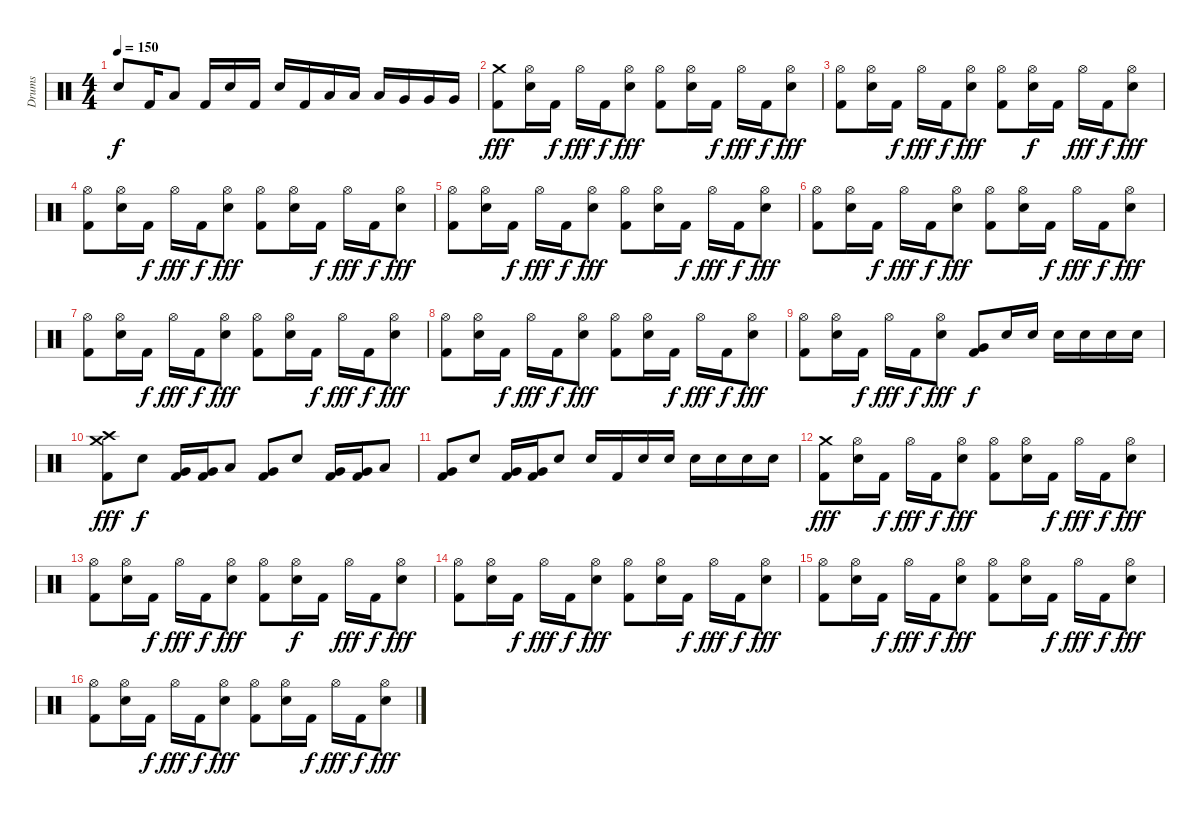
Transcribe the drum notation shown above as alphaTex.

\track ("Drums" "Drums") {instrument percussion}
\staff {score}
\articulation defaults
\ts (4 4)
\tempo 150
\clef neutral
\ks c "Electric Snare (hit)".8{dy f} "Kick (hit) 2".16 "Low Tom (hit)".8 "Kick (hit) 2".16 "Electric Snare (hit)".16 "Kick (hit) 2".16 "Electric Snare (hit)".16 "Kick (hit) 2".16 "Low Tom (hit)".16 "Low Tom (hit)".16 "Low Tom (hit)".16 "Very Low Tom (hit)".16 "Very Low Tom (hit)".16 "Very Low Tom (hit)".16
|
("Crash medium (hit)" "Kick (hit) 2").8{dy fff} ("Hi-Hat (open)" "Electric Snare (hit)").16 "Kick (hit) 2".16{dy f} "Hi-Hat (open)".16{dy fff} "Kick (hit) 2".16{dy f} ("Hi-Hat (open)" "Electric Snare (hit)").8{dy fff} ("Hi-Hat (open)" "Kick (hit) 2").8 ("Hi-Hat (open)" "Electric Snare (hit)").16 "Kick (hit) 2".16{dy f} "Hi-Hat (open)".16{dy fff} "Kick (hit) 2".16{dy f} ("Hi-Hat (open)" "Electric Snare (hit)").8{dy fff} |
("Hi-Hat (open)" "Kick (hit) 2").8 ("Hi-Hat (open)" "Electric Snare (hit)").16 "Kick (hit) 2".16{dy f} "Hi-Hat (open)".16{dy fff} "Kick (hit) 2".16{dy f} ("Hi-Hat (open)" "Electric Snare (hit)").8{dy fff} ("Hi-Hat (open)" "Kick (hit) 2").8 ("Hi-Hat (open)" "Electric Snare (hit)").16{dy f} "Kick (hit) 2".16 "Hi-Hat (open)".16{dy fff} "Kick (hit) 2".16{dy f} ("Hi-Hat (open)" "Electric Snare (hit)").8{dy fff} |
("Hi-Hat (open)" "Kick (hit) 2").8 ("Hi-Hat (open)" "Electric Snare (hit)").16 "Kick (hit) 2".16{dy f} "Hi-Hat (open)".16{dy fff} "Kick (hit) 2".16{dy f} ("Hi-Hat (open)" "Electric Snare (hit)").8{dy fff} ("Hi-Hat (open)" "Kick (hit) 2").8 ("Hi-Hat (open)" "Electric Snare (hit)").16 "Kick (hit) 2".16{dy f} "Hi-Hat (open)".16{dy fff} "Kick (hit) 2".16{dy f} ("Hi-Hat (open)" "Electric Snare (hit)").8{dy fff} |
("Hi-Hat (open)" "Kick (hit) 2").8 ("Hi-Hat (open)" "Electric Snare (hit)").16 "Kick (hit) 2".16{dy f} "Hi-Hat (open)".16{dy fff} "Kick (hit) 2".16{dy f} ("Hi-Hat (open)" "Electric Snare (hit)").8{dy fff} ("Hi-Hat (open)" "Kick (hit) 2").8 ("Hi-Hat (open)" "Electric Snare (hit)").16 "Kick (hit) 2".16{dy f} "Hi-Hat (open)".16{dy fff} "Kick (hit) 2".16{dy f} ("Hi-Hat (open)" "Electric Snare (hit)").8{dy fff} |
("Hi-Hat (open)" "Kick (hit) 2").8 ("Hi-Hat (open)" "Electric Snare (hit)").16 "Kick (hit) 2".16{dy f} "Hi-Hat (open)".16{dy fff} "Kick (hit) 2".16{dy f} ("Hi-Hat (open)" "Electric Snare (hit)").8{dy fff} ("Hi-Hat (open)" "Kick (hit) 2").8 ("Hi-Hat (open)" "Electric Snare (hit)").16 "Kick (hit) 2".16{dy f} "Hi-Hat (open)".16{dy fff} "Kick (hit) 2".16{dy f} ("Hi-Hat (open)" "Electric Snare (hit)").8{dy fff} |
("Hi-Hat (open)" "Kick (hit) 2").8 ("Hi-Hat (open)" "Electric Snare (hit)").16 "Kick (hit) 2".16{dy f} "Hi-Hat (open)".16{dy fff} "Kick (hit) 2".16{dy f} ("Hi-Hat (open)" "Electric Snare (hit)").8{dy fff} ("Hi-Hat (open)" "Kick (hit) 2").8 ("Hi-Hat (open)" "Electric Snare (hit)").16 "Kick (hit) 2".16{dy f} "Hi-Hat (open)".16{dy fff} "Kick (hit) 2".16{dy f} ("Hi-Hat (open)" "Electric Snare (hit)").8{dy fff} |
("Hi-Hat (open)" "Kick (hit) 2").8 ("Hi-Hat (open)" "Electric Snare (hit)").16 "Kick (hit) 2".16{dy f} "Hi-Hat (open)".16{dy fff} "Kick (hit) 2".16{dy f} ("Hi-Hat (open)" "Electric Snare (hit)").8{dy fff} ("Hi-Hat (open)" "Kick (hit) 2").8 ("Hi-Hat (open)" "Electric Snare (hit)").16 "Kick (hit) 2".16{dy f} "Hi-Hat (open)".16{dy fff} "Kick (hit) 2".16{dy f} ("Hi-Hat (open)" "Electric Snare (hit)").8{dy fff} |
("Hi-Hat (open)" "Kick (hit) 2").8 ("Hi-Hat (open)" "Electric Snare (hit)").16 "Kick (hit) 2".16{dy f} "Hi-Hat (open)".16{dy fff} "Kick (hit) 2".16{dy f} ("Hi-Hat (open)" "Electric Snare (hit)").8{dy fff} ("Very Low Tom (hit)" "Kick (hit) 2").8{dy f} "Electric Snare (hit)".16 "Electric Snare (hit)".16 "Electric Snare (hit)".16 "Electric Snare (hit)".16 "Electric Snare (hit)".16 "Electric Snare (hit)".16 |
("Crash high (hit)" "Crash medium (hit)" "Kick (hit) 2").8{dy fff} "Electric Snare (hit)".8{dy f} ("Very Low Tom (hit)" "Kick (hit) 2").16 ("Very Low Tom (hit)" "Kick (hit) 2").16 "Low Tom (hit)".8 ("Very Low Tom (hit)" "Kick (hit) 2").8 "Electric Snare (hit)".8 ("Very Low Tom (hit)" "Kick (hit) 2").16 ("Very Low Tom (hit)" "Kick (hit) 2").16 "Low Tom (hit)".8 |
("Very Low Tom (hit)" "Kick (hit) 2").8 "Electric Snare (hit)".8 ("Very Low Tom (hit)" "Kick (hit) 2").16 ("Very Low Tom (hit)" "Kick (hit) 2").16 "Electric Snare (hit)".8 "Electric Snare (hit)".16 "Kick (hit) 2".16 "Electric Snare (hit)".16 "Electric Snare (hit)".16 "Electric Snare (hit)".16 "Electric Snare (hit)".16 "Electric Snare (hit)".16 "Electric Snare (hit)".16 |
("Crash medium (hit)" "Kick (hit) 2").8{dy fff} ("Hi-Hat (open)" "Electric Snare (hit)").16 "Kick (hit) 2".16{dy f} "Hi-Hat (open)".16{dy fff} "Kick (hit) 2".16{dy f} ("Hi-Hat (open)" "Electric Snare (hit)").8{dy fff} ("Hi-Hat (open)" "Kick (hit) 2").8 ("Hi-Hat (open)" "Electric Snare (hit)").16 "Kick (hit) 2".16{dy f} "Hi-Hat (open)".16{dy fff} "Kick (hit) 2".16{dy f} ("Hi-Hat (open)" "Electric Snare (hit)").8{dy fff} |
("Hi-Hat (open)" "Kick (hit) 2").8 ("Hi-Hat (open)" "Electric Snare (hit)").16 "Kick (hit) 2".16{dy f} "Hi-Hat (open)".16{dy fff} "Kick (hit) 2".16{dy f} ("Hi-Hat (open)" "Electric Snare (hit)").8{dy fff} ("Hi-Hat (open)" "Kick (hit) 2").8 ("Hi-Hat (open)" "Electric Snare (hit)").16{dy f} "Kick (hit) 2".16 "Hi-Hat (open)".16{dy fff} "Kick (hit) 2".16{dy f} ("Hi-Hat (open)" "Electric Snare (hit)").8{dy fff} |
("Hi-Hat (open)" "Kick (hit) 2").8 ("Hi-Hat (open)" "Electric Snare (hit)").16 "Kick (hit) 2".16{dy f} "Hi-Hat (open)".16{dy fff} "Kick (hit) 2".16{dy f} ("Hi-Hat (open)" "Electric Snare (hit)").8{dy fff} ("Hi-Hat (open)" "Kick (hit) 2").8 ("Hi-Hat (open)" "Electric Snare (hit)").16 "Kick (hit) 2".16{dy f} "Hi-Hat (open)".16{dy fff} "Kick (hit) 2".16{dy f} ("Hi-Hat (open)" "Electric Snare (hit)").8{dy fff} |
("Hi-Hat (open)" "Kick (hit) 2").8 ("Hi-Hat (open)" "Electric Snare (hit)").16 "Kick (hit) 2".16{dy f} "Hi-Hat (open)".16{dy fff} "Kick (hit) 2".16{dy f} ("Hi-Hat (open)" "Electric Snare (hit)").8{dy fff} ("Hi-Hat (open)" "Kick (hit) 2").8 ("Hi-Hat (open)" "Electric Snare (hit)").16 "Kick (hit) 2".16{dy f} "Hi-Hat (open)".16{dy fff} "Kick (hit) 2".16{dy f} ("Hi-Hat (open)" "Electric Snare (hit)").8{dy fff} |
("Hi-Hat (open)" "Kick (hit) 2").8 ("Hi-Hat (open)" "Electric Snare (hit)").16 "Kick (hit) 2".16{dy f} "Hi-Hat (open)".16{dy fff} "Kick (hit) 2".16{dy f} ("Hi-Hat (open)" "Electric Snare (hit)").8{dy fff} ("Hi-Hat (open)" "Kick (hit) 2").8 ("Hi-Hat (open)" "Electric Snare (hit)").16 "Kick (hit) 2".16{dy f} "Hi-Hat (open)".16{dy fff} "Kick (hit) 2".16{dy f} ("Hi-Hat (open)" "Electric Snare (hit)").8{dy fff}
